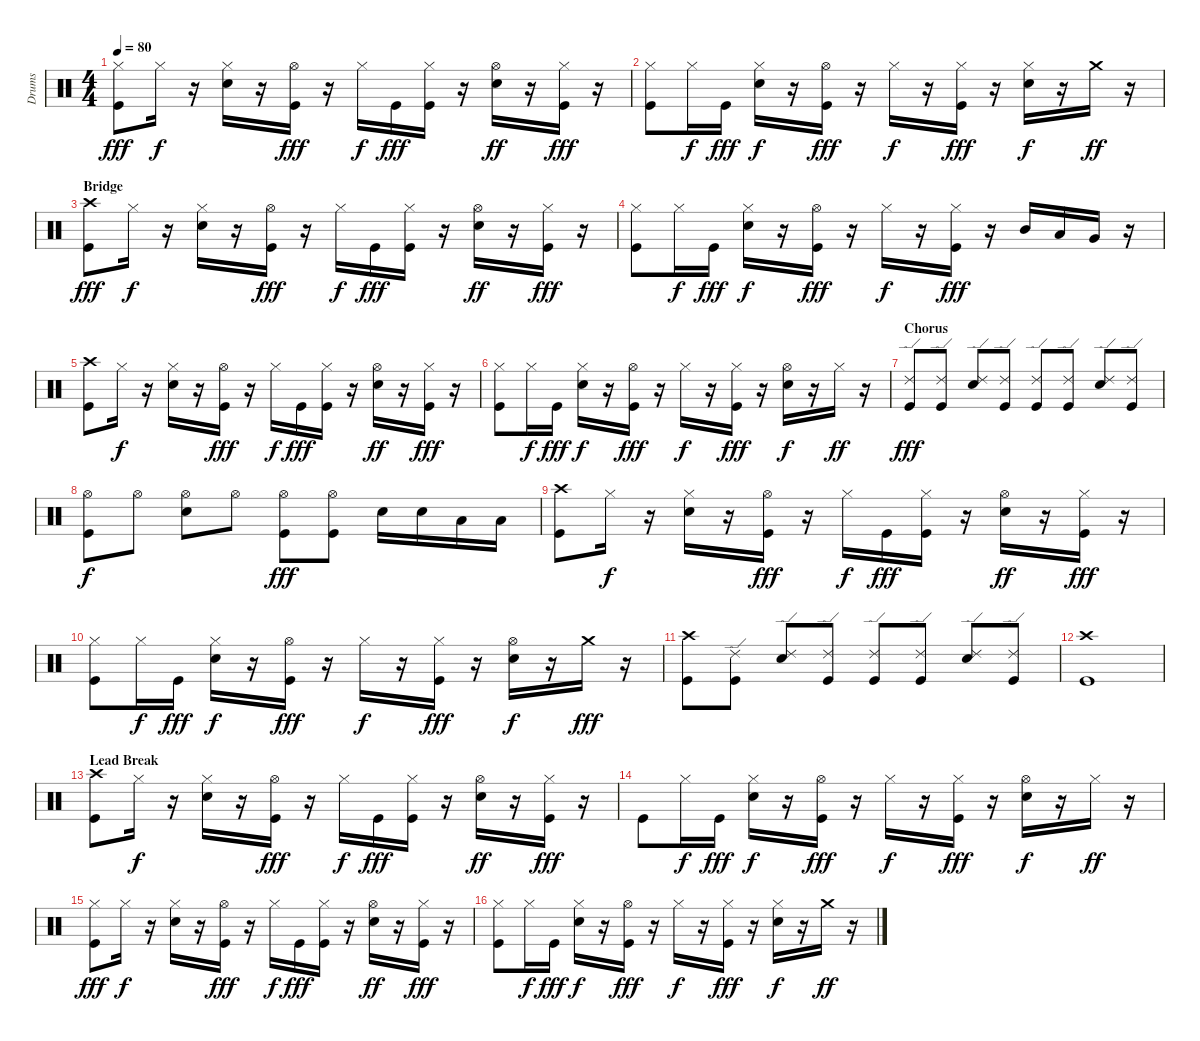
\track ("Drums" "Drums") {instrument percussion}
\staff {score}
\articulation defaults
\ts (4 4)
\tempo 80
\clef neutral
\ks c
("Hi-Hat (closed)" "Kick (hit)").8{dy fff} "Hi-Hat (closed)".16{dy f} r.16 ("Hi-Hat (closed)" "Snare (hit) 2").16 r.16 ("Hi-Hat (open)" "Kick (hit)").16{dy fff} r.16 "Hi-Hat (closed)".16{dy f} "Kick (hit)".16{dy fff} ("Hi-Hat (closed)" "Kick (hit)").16 r.16 ("Hi-Hat (open)" "Snare (hit) 2").16{dy ff} r.16 ("Hi-Hat (closed)" "Kick (hit)").16{dy fff} r.16 |
("Hi-Hat (closed)" "Kick (hit)").8 "Hi-Hat (closed)".16{dy f} "Kick (hit)".16{dy fff} ("Hi-Hat (closed)" "Snare (hit) 2").16{dy f} r.16 ("Hi-Hat (open)" "Kick (hit)").16{dy fff} r.16 "Hi-Hat (closed)".16{dy f} r.16 ("Hi-Hat (closed)" "Kick (hit)").16{dy fff} r.16 ("Hi-Hat (closed)" "Snare (hit) 2").16{dy f} r.16 "Crash medium (hit)".16{dy ff} r.16 |
\section ("" "Bridge")
("Crash high (hit)" "Kick (hit)").8{dy fff} "Hi-Hat (closed)".16{dy f} r.16 ("Hi-Hat (closed)" "Snare (hit) 2").16 r.16 ("Hi-Hat (open)" "Kick (hit)").16{dy fff} r.16 "Hi-Hat (closed)".16{dy f} "Kick (hit)".16{dy fff} ("Hi-Hat (closed)" "Kick (hit)").16 r.16 ("Hi-Hat (open)" "Snare (hit) 2").16{dy ff} r.16 ("Hi-Hat (closed)" "Kick (hit)").16{dy fff} r.16 |
("Hi-Hat (closed)" "Kick (hit)").8 "Hi-Hat (closed)".16{dy f} "Kick (hit)".16{dy fff} ("Hi-Hat (closed)" "Snare (hit) 2").16{dy f} r.16 ("Hi-Hat (open)" "Kick (hit)").16{dy fff} r.16 "Hi-Hat (closed)".16{dy f} r.16 ("Hi-Hat (closed)" "Kick (hit)").16{dy fff} r.16 "Mid Tom (hit)".16 "Low Tom (hit)".16 "Very Low Tom (hit)".16 r.16 |
("Crash high (hit)" "Kick (hit)").8 "Hi-Hat (closed)".16{dy f} r.16 ("Hi-Hat (closed)" "Snare (hit) 2").16 r.16 ("Hi-Hat (open)" "Kick (hit)").16{dy fff} r.16 "Hi-Hat (closed)".16{dy f} "Kick (hit)".16{dy fff} ("Hi-Hat (closed)" "Kick (hit)").16 r.16 ("Hi-Hat (open)" "Snare (hit) 2").16{dy ff} r.16 ("Hi-Hat (closed)" "Kick (hit)").16{dy fff} r.16 |
("Hi-Hat (closed)" "Kick (hit)").8 "Hi-Hat (closed)".16{dy f} "Kick (hit)".16{dy fff} ("Hi-Hat (closed)" "Snare (hit) 2").16{dy f} r.16 ("Hi-Hat (open)" "Kick (hit)").16{dy fff} r.16 "Hi-Hat (closed)".16{dy f} r.16 ("Hi-Hat (closed)" "Kick (hit)").16{dy fff} r.16 ("Hi-Hat (open)" "Snare (hit) 2").16{dy f} r.16 "Hi-Hat (closed)".16{dy ff} r.16 |
\section ("" "Chorus")
("Ride (edge) 2" "Kick (hit)").8{dy fff} ("Ride (edge) 2" "Kick (hit)").8 ("Ride (edge) 2" "Snare (hit) 2").8 ("Ride (edge) 2" "Kick (hit)").8 ("Ride (edge) 2" "Kick (hit)").8 ("Ride (edge) 2" "Kick (hit)").8 ("Ride (edge) 2" "Snare (hit) 2").8 ("Ride (edge) 2" "Kick (hit)").8 |
("Hi-Hat (open)" "Kick (hit)").8{dy f} "Hi-Hat (open)".8 ("Hi-Hat (open)" "Snare (hit) 2").8 "Hi-Hat (open)".8 ("Hi-Hat (open)" "Kick (hit)").8{dy fff} ("Hi-Hat (open)" "Kick (hit)").8 "Snare (hit) 2".16 "Snare (hit) 2".16 "Low Tom (hit)".16 "Low Tom (hit)".16 |
("Crash high (hit)" "Kick (hit)").8 "Hi-Hat (closed)".16{dy f} r.16 ("Hi-Hat (closed)" "Snare (hit) 2").16 r.16 ("Hi-Hat (open)" "Kick (hit)").16{dy fff} r.16 "Hi-Hat (closed)".16{dy f} "Kick (hit)".16{dy fff} ("Hi-Hat (closed)" "Kick (hit)").16 r.16 ("Hi-Hat (open)" "Snare (hit) 2").16{dy ff} r.16 ("Hi-Hat (closed)" "Kick (hit)").16{dy fff} r.16 |
("Hi-Hat (closed)" "Kick (hit)").8 "Hi-Hat (closed)".16{dy f} "Kick (hit)".16{dy fff} ("Hi-Hat (closed)" "Snare (hit) 2").16{dy f} r.16 ("Hi-Hat (open)" "Kick (hit)").16{dy fff} r.16 "Hi-Hat (closed)".16{dy f} r.16 ("Hi-Hat (closed)" "Kick (hit)").16{dy fff} r.16 ("Hi-Hat (open)" "Snare (hit) 2").16{dy f} r.16 "Crash medium (hit)".16{dy fff} r.16 |
("Crash high (hit)" "Kick (hit)").8 ("Ride (edge) 2" "Kick (hit)").8 ("Ride (edge) 2" "Snare (hit) 2").8 ("Ride (edge) 2" "Kick (hit)").8 ("Ride (edge) 2" "Kick (hit)").8 ("Ride (edge) 2" "Kick (hit)").8 ("Ride (edge) 2" "Snare (hit) 2").8 ("Ride (edge) 2" "Kick (hit)").8 |
("Crash high (hit)" "Kick (hit)").1 |
\section ("" "Lead Break")
("Crash high (hit)" "Kick (hit)").8 "Hi-Hat (closed)".16{dy f} r.16 ("Hi-Hat (closed)" "Snare (hit) 2").16 r.16 ("Hi-Hat (open)" "Kick (hit)").16{dy fff} r.16 "Hi-Hat (closed)".16{dy f} "Kick (hit)".16{dy fff} ("Hi-Hat (closed)" "Kick (hit)").16 r.16 ("Hi-Hat (open)" "Snare (hit) 2").16{dy ff} r.16 ("Hi-Hat (closed)" "Kick (hit)").16{dy fff} r.16 |
"Kick (hit)".8 "Hi-Hat (closed)".16{dy f} "Kick (hit)".16{dy fff} ("Hi-Hat (closed)" "Snare (hit) 2").16{dy f} r.16 ("Hi-Hat (open)" "Kick (hit)").16{dy fff} r.16 "Hi-Hat (closed)".16{dy f} r.16 ("Hi-Hat (closed)" "Kick (hit)").16{dy fff} r.16 ("Hi-Hat (open)" "Snare (hit) 2").16{dy f} r.16 "Hi-Hat (closed)".16{dy ff} r.16 |
("Hi-Hat (closed)" "Kick (hit)").8{dy fff} "Hi-Hat (closed)".16{dy f} r.16 ("Hi-Hat (closed)" "Snare (hit) 2").16 r.16 ("Hi-Hat (open)" "Kick (hit)").16{dy fff} r.16 "Hi-Hat (closed)".16{dy f} "Kick (hit)".16{dy fff} ("Hi-Hat (closed)" "Kick (hit)").16 r.16 ("Hi-Hat (open)" "Snare (hit) 2").16{dy ff} r.16 ("Hi-Hat (closed)" "Kick (hit)").16{dy fff} r.16 |
("Hi-Hat (closed)" "Kick (hit)").8 "Hi-Hat (closed)".16{dy f} "Kick (hit)".16{dy fff} ("Hi-Hat (closed)" "Snare (hit) 2").16{dy f} r.16 ("Hi-Hat (open)" "Kick (hit)").16{dy fff} r.16 "Hi-Hat (closed)".16{dy f} r.16 ("Hi-Hat (closed)" "Kick (hit)").16{dy fff} r.16 ("Hi-Hat (closed)" "Snare (hit) 2").16{dy f} r.16 "Crash medium (hit)".16{dy ff} r.16
